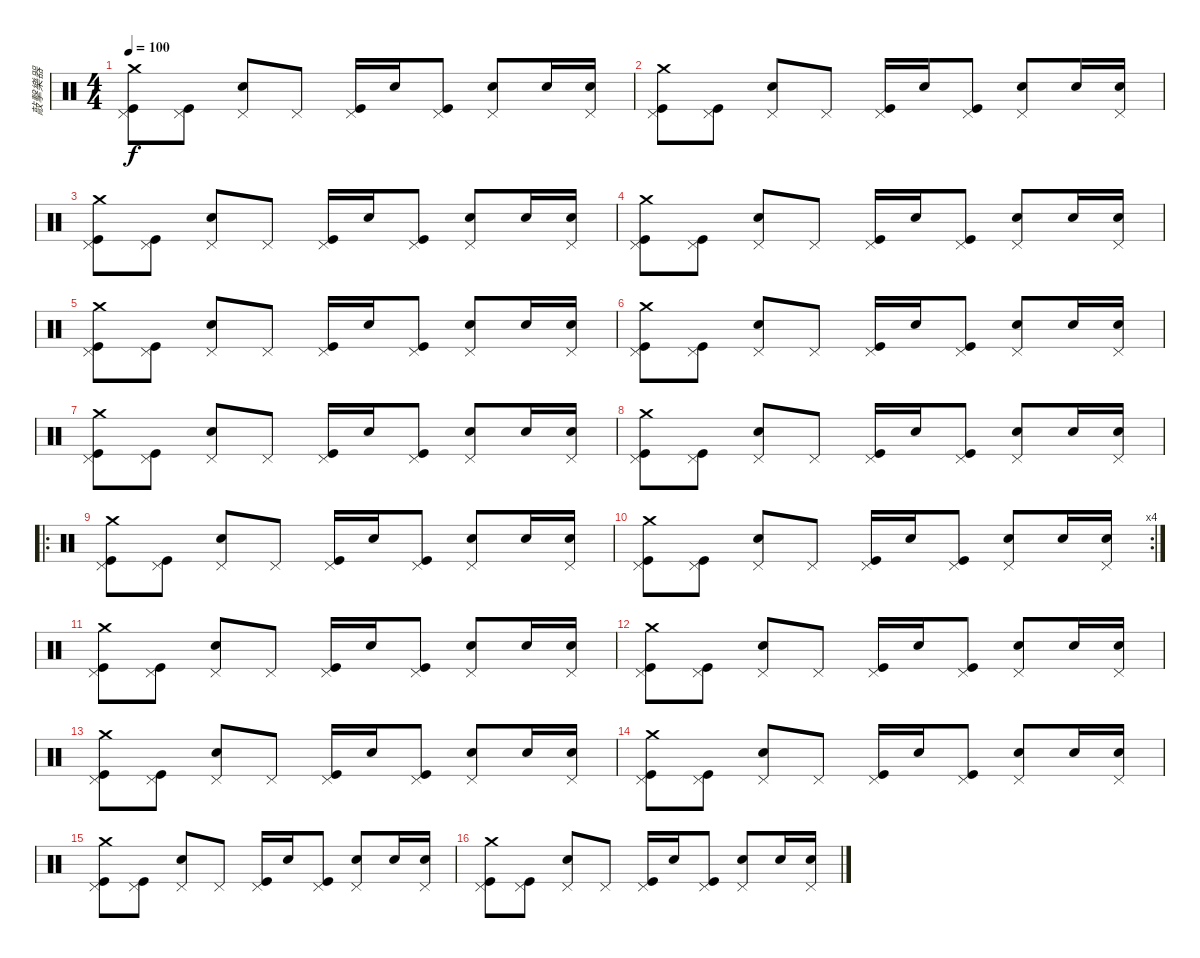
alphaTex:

\track ("敲擊樂器" "敲擊樂器") {instrument percussion}
\staff {score}
\articulation defaults
\ts (4 4)
\tempo 100
\clef neutral
\ks c
("Pedal Hi-Hat (hit)" "Kick (hit)" "Crash medium (hit)").8{dy f} ("Pedal Hi-Hat (hit)" "Kick (hit)").8 ("Pedal Hi-Hat (hit)" "Electric Snare (hit)").8 "Pedal Hi-Hat (hit)".8 ("Pedal Hi-Hat (hit)" "Kick (hit)").16 "Electric Snare (hit)".16 ("Pedal Hi-Hat (hit)" "Kick (hit)").8 ("Pedal Hi-Hat (hit)" "Electric Snare (hit)").8 "Electric Snare (hit)".16 ("Pedal Hi-Hat (hit)" "Electric Snare (hit)").16 |
("Pedal Hi-Hat (hit)" "Kick (hit)" "Crash medium (hit)").8 ("Pedal Hi-Hat (hit)" "Kick (hit)").8 ("Pedal Hi-Hat (hit)" "Electric Snare (hit)").8 "Pedal Hi-Hat (hit)".8 ("Pedal Hi-Hat (hit)" "Kick (hit)").16 "Electric Snare (hit)".16 ("Pedal Hi-Hat (hit)" "Kick (hit)").8 ("Pedal Hi-Hat (hit)" "Electric Snare (hit)").8 "Electric Snare (hit)".16 ("Pedal Hi-Hat (hit)" "Electric Snare (hit)").16 |
("Pedal Hi-Hat (hit)" "Kick (hit)" "Crash medium (hit)").8 ("Pedal Hi-Hat (hit)" "Kick (hit)").8 ("Pedal Hi-Hat (hit)" "Electric Snare (hit)").8 "Pedal Hi-Hat (hit)".8 ("Pedal Hi-Hat (hit)" "Kick (hit)").16 "Electric Snare (hit)".16 ("Pedal Hi-Hat (hit)" "Kick (hit)").8 ("Pedal Hi-Hat (hit)" "Electric Snare (hit)").8 "Electric Snare (hit)".16 ("Pedal Hi-Hat (hit)" "Electric Snare (hit)").16 |
("Pedal Hi-Hat (hit)" "Kick (hit)" "Crash medium (hit)").8 ("Pedal Hi-Hat (hit)" "Kick (hit)").8 ("Pedal Hi-Hat (hit)" "Electric Snare (hit)").8 "Pedal Hi-Hat (hit)".8 ("Pedal Hi-Hat (hit)" "Kick (hit)").16 "Electric Snare (hit)".16 ("Pedal Hi-Hat (hit)" "Kick (hit)").8 ("Pedal Hi-Hat (hit)" "Electric Snare (hit)").8 "Electric Snare (hit)".16 ("Pedal Hi-Hat (hit)" "Electric Snare (hit)").16 |
("Pedal Hi-Hat (hit)" "Kick (hit)" "Crash medium (hit)").8 ("Pedal Hi-Hat (hit)" "Kick (hit)").8 ("Pedal Hi-Hat (hit)" "Electric Snare (hit)").8 "Pedal Hi-Hat (hit)".8 ("Pedal Hi-Hat (hit)" "Kick (hit)").16 "Electric Snare (hit)".16 ("Pedal Hi-Hat (hit)" "Kick (hit)").8 ("Pedal Hi-Hat (hit)" "Electric Snare (hit)").8 "Electric Snare (hit)".16 ("Pedal Hi-Hat (hit)" "Electric Snare (hit)").16 |
("Pedal Hi-Hat (hit)" "Kick (hit)" "Crash medium (hit)").8 ("Pedal Hi-Hat (hit)" "Kick (hit)").8 ("Pedal Hi-Hat (hit)" "Electric Snare (hit)").8 "Pedal Hi-Hat (hit)".8 ("Pedal Hi-Hat (hit)" "Kick (hit)").16 "Electric Snare (hit)".16 ("Pedal Hi-Hat (hit)" "Kick (hit)").8 ("Pedal Hi-Hat (hit)" "Electric Snare (hit)").8 "Electric Snare (hit)".16 ("Pedal Hi-Hat (hit)" "Electric Snare (hit)").16 |
("Pedal Hi-Hat (hit)" "Kick (hit)" "Crash medium (hit)").8 ("Pedal Hi-Hat (hit)" "Kick (hit)").8 ("Pedal Hi-Hat (hit)" "Electric Snare (hit)").8 "Pedal Hi-Hat (hit)".8 ("Pedal Hi-Hat (hit)" "Kick (hit)").16 "Electric Snare (hit)".16 ("Pedal Hi-Hat (hit)" "Kick (hit)").8 ("Pedal Hi-Hat (hit)" "Electric Snare (hit)").8 "Electric Snare (hit)".16 ("Pedal Hi-Hat (hit)" "Electric Snare (hit)").16 |
("Pedal Hi-Hat (hit)" "Kick (hit)" "Crash medium (hit)").8 ("Pedal Hi-Hat (hit)" "Kick (hit)").8 ("Pedal Hi-Hat (hit)" "Electric Snare (hit)").8 "Pedal Hi-Hat (hit)".8 ("Pedal Hi-Hat (hit)" "Kick (hit)").16 "Electric Snare (hit)".16 ("Pedal Hi-Hat (hit)" "Kick (hit)").8 ("Pedal Hi-Hat (hit)" "Electric Snare (hit)").8 "Electric Snare (hit)".16 ("Pedal Hi-Hat (hit)" "Electric Snare (hit)").16 |
\ro
("Pedal Hi-Hat (hit)" "Kick (hit)" "Crash medium (hit)").8 ("Pedal Hi-Hat (hit)" "Kick (hit)").8 ("Pedal Hi-Hat (hit)" "Electric Snare (hit)").8 "Pedal Hi-Hat (hit)".8 ("Pedal Hi-Hat (hit)" "Kick (hit)").16 "Electric Snare (hit)".16 ("Pedal Hi-Hat (hit)" "Kick (hit)").8 ("Pedal Hi-Hat (hit)" "Electric Snare (hit)").8 "Electric Snare (hit)".16 ("Pedal Hi-Hat (hit)" "Electric Snare (hit)").16 |
\rc 4
("Pedal Hi-Hat (hit)" "Kick (hit)" "Crash medium (hit)").8 ("Pedal Hi-Hat (hit)" "Kick (hit)").8 ("Pedal Hi-Hat (hit)" "Electric Snare (hit)").8 "Pedal Hi-Hat (hit)".8 ("Pedal Hi-Hat (hit)" "Kick (hit)").16 "Electric Snare (hit)".16 ("Pedal Hi-Hat (hit)" "Kick (hit)").8 ("Pedal Hi-Hat (hit)" "Electric Snare (hit)").8 "Electric Snare (hit)".16 ("Pedal Hi-Hat (hit)" "Electric Snare (hit)").16 |
("Pedal Hi-Hat (hit)" "Kick (hit)" "Crash medium (hit)").8 ("Pedal Hi-Hat (hit)" "Kick (hit)").8 ("Pedal Hi-Hat (hit)" "Electric Snare (hit)").8 "Pedal Hi-Hat (hit)".8 ("Pedal Hi-Hat (hit)" "Kick (hit)").16 "Electric Snare (hit)".16 ("Pedal Hi-Hat (hit)" "Kick (hit)").8 ("Pedal Hi-Hat (hit)" "Electric Snare (hit)").8 "Electric Snare (hit)".16 ("Pedal Hi-Hat (hit)" "Electric Snare (hit)").16 |
("Pedal Hi-Hat (hit)" "Kick (hit)" "Crash medium (hit)").8 ("Pedal Hi-Hat (hit)" "Kick (hit)").8 ("Pedal Hi-Hat (hit)" "Electric Snare (hit)").8 "Pedal Hi-Hat (hit)".8 ("Pedal Hi-Hat (hit)" "Kick (hit)").16 "Electric Snare (hit)".16 ("Pedal Hi-Hat (hit)" "Kick (hit)").8 ("Pedal Hi-Hat (hit)" "Electric Snare (hit)").8 "Electric Snare (hit)".16 ("Pedal Hi-Hat (hit)" "Electric Snare (hit)").16 |
("Pedal Hi-Hat (hit)" "Kick (hit)" "Crash medium (hit)").8 ("Pedal Hi-Hat (hit)" "Kick (hit)").8 ("Pedal Hi-Hat (hit)" "Electric Snare (hit)").8 "Pedal Hi-Hat (hit)".8 ("Pedal Hi-Hat (hit)" "Kick (hit)").16 "Electric Snare (hit)".16 ("Pedal Hi-Hat (hit)" "Kick (hit)").8 ("Pedal Hi-Hat (hit)" "Electric Snare (hit)").8 "Electric Snare (hit)".16 ("Pedal Hi-Hat (hit)" "Electric Snare (hit)").16 |
("Pedal Hi-Hat (hit)" "Kick (hit)" "Crash medium (hit)").8 ("Pedal Hi-Hat (hit)" "Kick (hit)").8 ("Pedal Hi-Hat (hit)" "Electric Snare (hit)").8 "Pedal Hi-Hat (hit)".8 ("Pedal Hi-Hat (hit)" "Kick (hit)").16 "Electric Snare (hit)".16 ("Pedal Hi-Hat (hit)" "Kick (hit)").8 ("Pedal Hi-Hat (hit)" "Electric Snare (hit)").8 "Electric Snare (hit)".16 ("Pedal Hi-Hat (hit)" "Electric Snare (hit)").16 |
("Pedal Hi-Hat (hit)" "Kick (hit)" "Crash medium (hit)").8 ("Pedal Hi-Hat (hit)" "Kick (hit)").8 ("Pedal Hi-Hat (hit)" "Electric Snare (hit)").8 "Pedal Hi-Hat (hit)".8 ("Pedal Hi-Hat (hit)" "Kick (hit)").16 "Electric Snare (hit)".16 ("Pedal Hi-Hat (hit)" "Kick (hit)").8 ("Pedal Hi-Hat (hit)" "Electric Snare (hit)").8 "Electric Snare (hit)".16 ("Pedal Hi-Hat (hit)" "Electric Snare (hit)").16 |
("Pedal Hi-Hat (hit)" "Kick (hit)" "Crash medium (hit)").8 ("Pedal Hi-Hat (hit)" "Kick (hit)").8 ("Pedal Hi-Hat (hit)" "Electric Snare (hit)").8 "Pedal Hi-Hat (hit)".8 ("Pedal Hi-Hat (hit)" "Kick (hit)").16 "Electric Snare (hit)".16 ("Pedal Hi-Hat (hit)" "Kick (hit)").8 ("Pedal Hi-Hat (hit)" "Electric Snare (hit)").8 "Electric Snare (hit)".16 ("Pedal Hi-Hat (hit)" "Electric Snare (hit)").16
